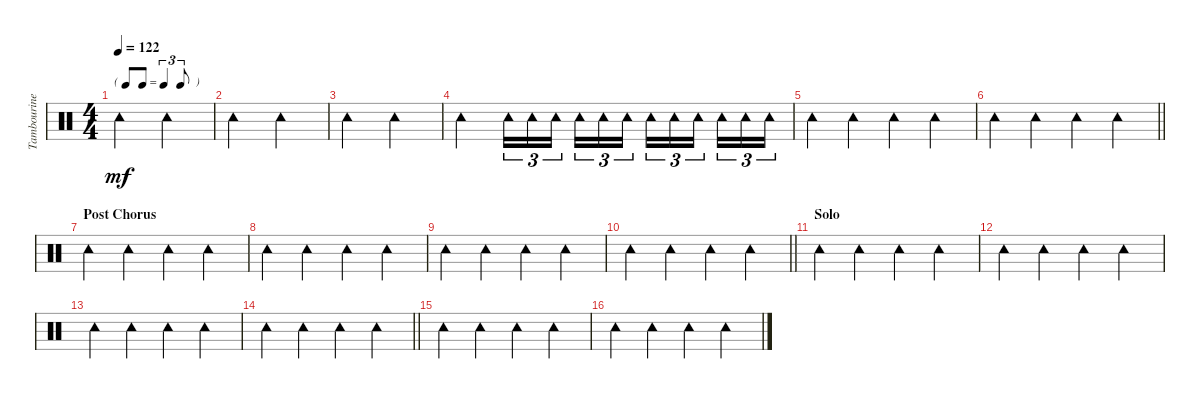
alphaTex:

\track ("Tambourine" "Tambourine") {instrument percussion}
\staff {score}
\articulation defaults
\ts (4 4)
\tf triplet8th
\tempo 122
\clef neutral
\ks c "Tambourine (hit)".2{dy mf} "Tambourine (hit)".2
|
"Tambourine (hit)".2 "Tambourine (hit)".2 |
"Tambourine (hit)".2 "Tambourine (hit)".2 |
"Tambourine (hit)".2 "Tambourine (hit)".16{tu (3 2)} "Tambourine (hit)".16{tu (3 2)} "Tambourine (hit)".16{tu (3 2)} "Tambourine (hit)".16{tu (3 2)} "Tambourine (hit)".16{tu (3 2)} "Tambourine (hit)".16{tu (3 2)} "Tambourine (hit)".16{tu (3 2)} "Tambourine (hit)".16{tu (3 2)} "Tambourine (hit)".16{tu (3 2)} "Tambourine (hit)".16{tu (3 2)} "Tambourine (hit)".16{tu (3 2)} "Tambourine (hit)".16{tu (3 2)} |
"Tambourine (hit)".4 "Tambourine (hit)".4 "Tambourine (hit)".4 "Tambourine (hit)".4 |
\barLineRight lightlight "Tambourine (hit)".4 "Tambourine (hit)".4 "Tambourine (hit)".4 "Tambourine (hit)".4
|
\section ("" "Post Chorus")
"Tambourine (hit)".4 "Tambourine (hit)".4 "Tambourine (hit)".4 "Tambourine (hit)".4 |
"Tambourine (hit)".4 "Tambourine (hit)".4 "Tambourine (hit)".4 "Tambourine (hit)".4 |
"Tambourine (hit)".4 "Tambourine (hit)".4 "Tambourine (hit)".4 "Tambourine (hit)".4 |
\barLineRight lightlight "Tambourine (hit)".4 "Tambourine (hit)".4 "Tambourine (hit)".4 "Tambourine (hit)".4
|
\section ("" "Solo")
"Tambourine (hit)".4 "Tambourine (hit)".4 "Tambourine (hit)".4 "Tambourine (hit)".4 |
"Tambourine (hit)".4 "Tambourine (hit)".4 "Tambourine (hit)".4 "Tambourine (hit)".4 |
"Tambourine (hit)".4 "Tambourine (hit)".4 "Tambourine (hit)".4 "Tambourine (hit)".4 |
\barLineRight lightlight "Tambourine (hit)".4 "Tambourine (hit)".4 "Tambourine (hit)".4 "Tambourine (hit)".4
|
"Tambourine (hit)".4 "Tambourine (hit)".4 "Tambourine (hit)".4 "Tambourine (hit)".4 |
"Tambourine (hit)".4 "Tambourine (hit)".4 "Tambourine (hit)".4 "Tambourine (hit)".4
